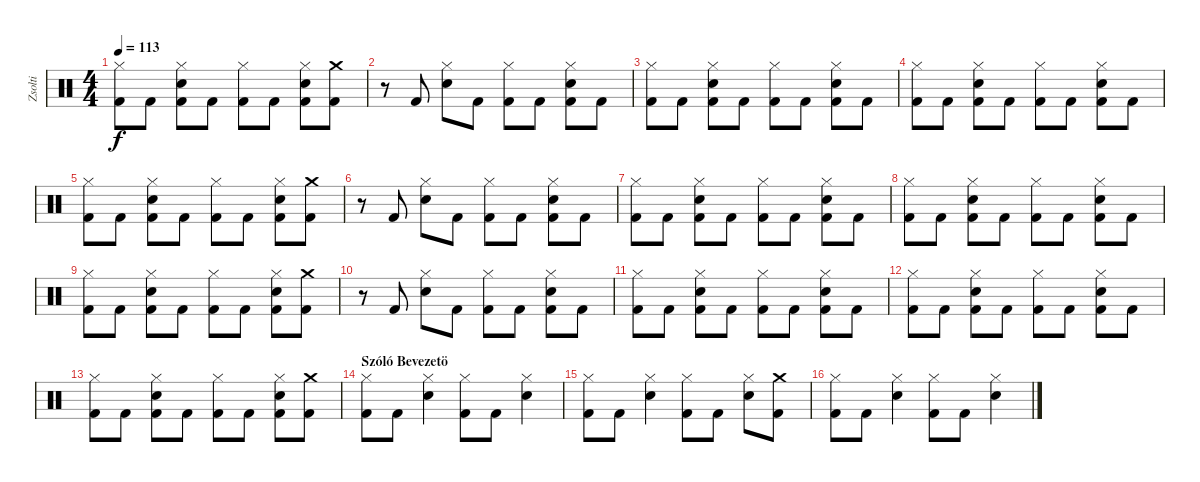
\track ("Zsolti" "Zsolti") {instrument percussion}
\staff {score}
\articulation defaults
\ts (4 4)
\tempo 113
\clef neutral
\ks c
("Hi-Hat (closed)" "Kick (hit) 2").8{dy f} "Kick (hit) 2".8 ("Hi-Hat (closed)" "Snare (hit) 2" "Kick (hit) 2").8 "Kick (hit) 2".8 ("Hi-Hat (closed)" "Kick (hit) 2").8 "Kick (hit) 2".8 ("Hi-Hat (closed)" "Snare (hit) 2" "Kick (hit) 2").8 ("Crash medium (hit)" "Kick (hit) 2").8 |
r.8 "Kick (hit) 2".8 ("Hi-Hat (closed)" "Snare (hit) 2").8 "Kick (hit) 2".8 ("Hi-Hat (closed)" "Kick (hit) 2").8 "Kick (hit) 2".8 ("Hi-Hat (closed)" "Snare (hit) 2" "Kick (hit) 2").8 "Kick (hit) 2".8 |
("Hi-Hat (closed)" "Kick (hit) 2").8 "Kick (hit) 2".8 ("Hi-Hat (closed)" "Snare (hit) 2" "Kick (hit) 2").8 "Kick (hit) 2".8 ("Hi-Hat (closed)" "Kick (hit) 2").8 "Kick (hit) 2".8 ("Hi-Hat (closed)" "Snare (hit) 2" "Kick (hit) 2").8 "Kick (hit) 2".8 |
("Hi-Hat (closed)" "Kick (hit) 2").8 "Kick (hit) 2".8 ("Hi-Hat (closed)" "Snare (hit) 2" "Kick (hit) 2").8 "Kick (hit) 2".8 ("Hi-Hat (closed)" "Kick (hit) 2").8 "Kick (hit) 2".8 ("Hi-Hat (closed)" "Snare (hit) 2" "Kick (hit) 2").8 "Kick (hit) 2".8 |
("Hi-Hat (closed)" "Kick (hit) 2").8 "Kick (hit) 2".8 ("Hi-Hat (closed)" "Snare (hit) 2" "Kick (hit) 2").8 "Kick (hit) 2".8 ("Hi-Hat (closed)" "Kick (hit) 2").8 "Kick (hit) 2".8 ("Hi-Hat (closed)" "Snare (hit) 2" "Kick (hit) 2").8 ("Crash medium (hit)" "Kick (hit) 2").8 |
r.8 "Kick (hit) 2".8 ("Hi-Hat (closed)" "Snare (hit) 2").8 "Kick (hit) 2".8 ("Hi-Hat (closed)" "Kick (hit) 2").8 "Kick (hit) 2".8 ("Hi-Hat (closed)" "Snare (hit) 2" "Kick (hit) 2").8 "Kick (hit) 2".8 |
("Hi-Hat (closed)" "Kick (hit) 2").8 "Kick (hit) 2".8 ("Hi-Hat (closed)" "Snare (hit) 2" "Kick (hit) 2").8 "Kick (hit) 2".8 ("Hi-Hat (closed)" "Kick (hit) 2").8 "Kick (hit) 2".8 ("Hi-Hat (closed)" "Snare (hit) 2" "Kick (hit) 2").8 "Kick (hit) 2".8 |
("Hi-Hat (closed)" "Kick (hit) 2").8 "Kick (hit) 2".8 ("Hi-Hat (closed)" "Snare (hit) 2" "Kick (hit) 2").8 "Kick (hit) 2".8 ("Hi-Hat (closed)" "Kick (hit) 2").8 "Kick (hit) 2".8 ("Hi-Hat (closed)" "Snare (hit) 2" "Kick (hit) 2").8 "Kick (hit) 2".8 |
("Hi-Hat (closed)" "Kick (hit) 2").8 "Kick (hit) 2".8 ("Hi-Hat (closed)" "Snare (hit) 2" "Kick (hit) 2").8 "Kick (hit) 2".8 ("Hi-Hat (closed)" "Kick (hit) 2").8 "Kick (hit) 2".8 ("Hi-Hat (closed)" "Snare (hit) 2" "Kick (hit) 2").8 ("Crash medium (hit)" "Kick (hit) 2").8 |
r.8 "Kick (hit) 2".8 ("Hi-Hat (closed)" "Snare (hit) 2").8 "Kick (hit) 2".8 ("Hi-Hat (closed)" "Kick (hit) 2").8 "Kick (hit) 2".8 ("Hi-Hat (closed)" "Snare (hit) 2" "Kick (hit) 2").8 "Kick (hit) 2".8 |
("Hi-Hat (closed)" "Kick (hit) 2").8 "Kick (hit) 2".8 ("Hi-Hat (closed)" "Snare (hit) 2" "Kick (hit) 2").8 "Kick (hit) 2".8 ("Hi-Hat (closed)" "Kick (hit) 2").8 "Kick (hit) 2".8 ("Hi-Hat (closed)" "Snare (hit) 2" "Kick (hit) 2").8 "Kick (hit) 2".8 |
("Hi-Hat (closed)" "Kick (hit) 2").8 "Kick (hit) 2".8 ("Hi-Hat (closed)" "Snare (hit) 2" "Kick (hit) 2").8 "Kick (hit) 2".8 ("Hi-Hat (closed)" "Kick (hit) 2").8 "Kick (hit) 2".8 ("Hi-Hat (closed)" "Snare (hit) 2" "Kick (hit) 2").8 "Kick (hit) 2".8 |
("Hi-Hat (closed)" "Kick (hit) 2").8 "Kick (hit) 2".8 ("Hi-Hat (closed)" "Snare (hit) 2" "Kick (hit) 2").8 "Kick (hit) 2".8 ("Hi-Hat (closed)" "Kick (hit) 2").8 "Kick (hit) 2".8 ("Hi-Hat (closed)" "Snare (hit) 2" "Kick (hit) 2").8 ("Crash medium (hit)" "Kick (hit) 2").8 |
\section ("" "Szóló Bevezetö")
("Hi-Hat (closed)" "Kick (hit) 2").8 "Kick (hit) 2".8 ("Hi-Hat (closed)" "Snare (hit) 2").4 ("Hi-Hat (closed)" "Kick (hit) 2").8 "Kick (hit) 2".8 ("Hi-Hat (closed)" "Snare (hit) 2").4 |
("Hi-Hat (closed)" "Kick (hit) 2").8 "Kick (hit) 2".8 ("Hi-Hat (closed)" "Snare (hit) 2").4 ("Hi-Hat (closed)" "Kick (hit) 2").8 "Kick (hit) 2".8 ("Hi-Hat (closed)" "Snare (hit) 2").8 ("Crash medium (hit)" "Kick (hit) 2").8 |
("Hi-Hat (closed)" "Kick (hit) 2").8 "Kick (hit) 2".8 ("Hi-Hat (closed)" "Snare (hit) 2").4 ("Hi-Hat (closed)" "Kick (hit) 2").8 "Kick (hit) 2".8 ("Hi-Hat (closed)" "Snare (hit) 2").4
